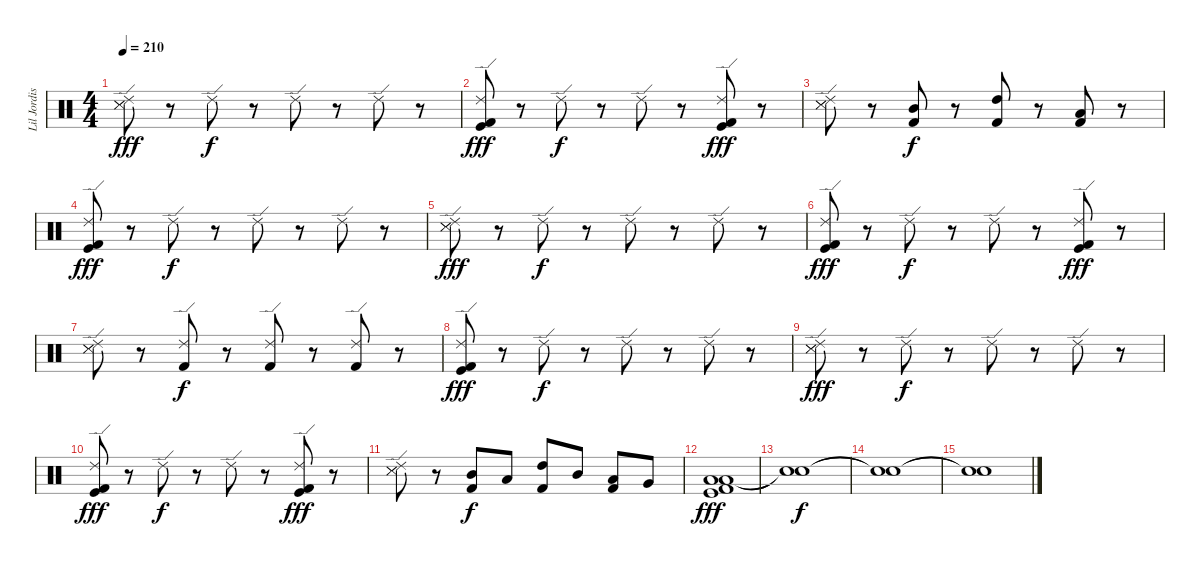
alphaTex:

\track ("Lil Jordison" "Lil Jordis") {instrument percussion}
\staff {score}
\articulation defaults
\ts (4 4)
\tempo 210
\clef neutral
\ks c
("Ride (edge) 2" "Snare (side stick) 3" "Snare (side stick) 3").8{dy fff} r.8 "Ride (edge) 2".8{dy f} r.8 "Ride (edge) 2".8 r.8 "Ride (edge) 2".8 r.8 |
("Ride (edge) 2" "Kick (hit)" "Kick (hit) 2").8{dy fff} r.8 "Ride (edge) 2".8{dy f} r.8 "Ride (edge) 2".8 r.8 ("Ride (edge) 2" "Kick (hit)" "Kick (hit) 2").8{dy fff} r.8 |
("Ride (edge) 2" "Snare (side stick) 3" "Snare (side stick) 3").8 r.8 ("Mid Tom (hit)" "Kick (hit) 2").8{dy f} r.8 ("High Tom (hit)" "Kick (hit) 2").8 r.8 ("Low Tom (hit)" "Kick (hit) 2").8 r.8 |
("Ride (edge) 2" "Kick (hit)" "Kick (hit) 2").8{dy fff} r.8 "Ride (edge) 2".8{dy f} r.8 "Ride (edge) 2".8 r.8 "Ride (edge) 2".8 r.8 |
("Ride (edge) 2" "Snare (side stick) 3" "Snare (side stick) 3").8{dy fff} r.8 "Ride (edge) 2".8{dy f} r.8 "Ride (edge) 2".8 r.8 "Ride (edge) 2".8 r.8 |
("Ride (edge) 2" "Kick (hit)" "Kick (hit) 2").8{dy fff} r.8 "Ride (edge) 2".8{dy f} r.8 "Ride (edge) 2".8 r.8 ("Ride (edge) 2" "Kick (hit)" "Kick (hit) 2").8{dy fff} r.8 |
("Ride (edge) 2" "Snare (side stick) 3" "Snare (side stick) 3").8 r.8 ("Ride (edge) 2" "Kick (hit) 2").8{dy f} r.8 ("Ride (edge) 2" "Kick (hit) 2").8 r.8 ("Ride (edge) 2" "Kick (hit) 2").8 r.8 |
("Ride (edge) 2" "Kick (hit)" "Kick (hit) 2").8{dy fff} r.8 "Ride (edge) 2".8{dy f} r.8 "Ride (edge) 2".8 r.8 "Ride (edge) 2".8 r.8 |
("Ride (edge) 2" "Snare (side stick) 3" "Snare (side stick) 3").8{dy fff} r.8 "Ride (edge) 2".8{dy f} r.8 "Ride (edge) 2".8 r.8 "Ride (edge) 2".8 r.8 |
("Ride (edge) 2" "Kick (hit)" "Kick (hit) 2").8{dy fff} r.8 "Ride (edge) 2".8{dy f} r.8 "Ride (edge) 2".8 r.8 ("Ride (edge) 2" "Kick (hit)" "Kick (hit) 2").8{dy fff} r.8 |
("Ride (edge) 2" "Snare (side stick) 3" "Snare (side stick) 3").8 r.8 ("Mid Tom (hit)" "Kick (hit) 2").8{dy f} "Low Tom (hit)".8 ("High Tom (hit)" "Kick (hit) 2").8 "Mid Tom (hit)".8 ("Low Tom (hit)" "Kick (hit) 2").8 "Very Low Tom (hit)".8 |
("Low Floor Tom (hit)" "Low Floor Tom (hit)" "Kick (hit)" "Kick (hit) 2").1{dy fff} |
("Snare (hit)"{t} "Snare (hit)"{t}).1{dy f} |
("Snare (hit)"{t} "Snare (hit)"{t}).1 |
("Snare (hit)"{t} "Snare (hit)"{t}).1
